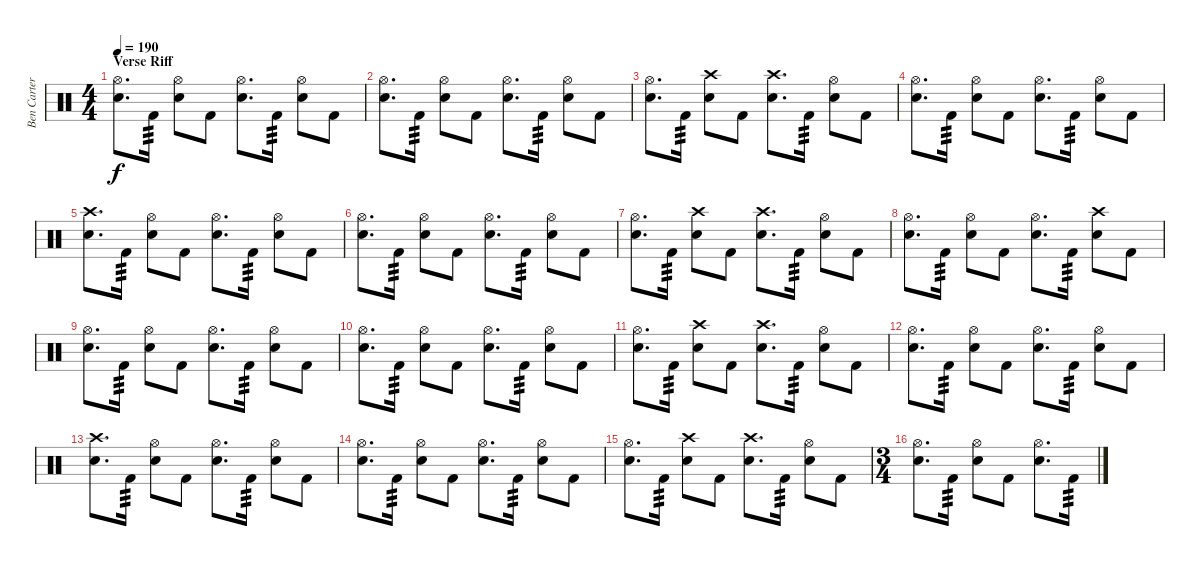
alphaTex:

\track ("Ben Carter" "Ben Carter") {instrument percussion}
\staff {score}
\articulation defaults
\ts (4 4)
\section ("" "Verse Riff")
\tempo 190
\clef neutral
\ks c
("Hi-Hat (open)" "Snare (hit) 2").8{d dy f} "Kick (hit) 2".16{tp 3} ("Hi-Hat (open)" "Snare (hit) 2").8 "Kick (hit) 2".8 ("Hi-Hat (open)" "Snare (hit) 2").8{d} "Kick (hit) 2".16{tp 3} ("Hi-Hat (open)" "Snare (hit) 2").8 "Kick (hit) 2".8 |
("Hi-Hat (open)" "Snare (hit) 2").8{d} "Kick (hit) 2".16{tp 3} ("Hi-Hat (open)" "Snare (hit) 2").8 "Kick (hit) 2".8 ("Hi-Hat (open)" "Snare (hit) 2").8{d} "Kick (hit) 2".16{tp 3} ("Hi-Hat (open)" "Snare (hit) 2").8 "Kick (hit) 2".8 |
("Hi-Hat (open)" "Snare (hit) 2").8{d} "Kick (hit) 2".16{tp 3} ("Crash high (hit)" "Snare (hit) 2").8 "Kick (hit) 2".8 ("Crash high (hit)" "Snare (hit) 2").8{d} "Kick (hit) 2".16{tp 3} ("Hi-Hat (open)" "Snare (hit) 2").8 "Kick (hit) 2".8 |
("Hi-Hat (open)" "Snare (hit) 2").8{d} "Kick (hit) 2".16{tp 3} ("Hi-Hat (open)" "Snare (hit) 2").8 "Kick (hit) 2".8 ("Hi-Hat (open)" "Snare (hit) 2").8{d} "Kick (hit) 2".16{tp 3} ("Hi-Hat (open)" "Snare (hit) 2").8 "Kick (hit) 2".8 |
("Crash high (hit)" "Snare (hit) 2").8{d} "Kick (hit) 2".16{tp 3} ("Hi-Hat (open)" "Snare (hit) 2").8 "Kick (hit) 2".8 ("Hi-Hat (open)" "Snare (hit) 2").8{d} "Kick (hit) 2".16{tp 3} ("Hi-Hat (open)" "Snare (hit) 2").8 "Kick (hit) 2".8 |
("Hi-Hat (open)" "Snare (hit) 2").8{d} "Kick (hit) 2".16{tp 3} ("Hi-Hat (open)" "Snare (hit) 2").8 "Kick (hit) 2".8 ("Hi-Hat (open)" "Snare (hit) 2").8{d} "Kick (hit) 2".16{tp 3} ("Hi-Hat (open)" "Snare (hit) 2").8 "Kick (hit) 2".8 |
("Hi-Hat (open)" "Snare (hit) 2").8{d} "Kick (hit) 2".16{tp 3} ("Crash high (hit)" "Snare (hit) 2").8 "Kick (hit) 2".8 ("Crash high (hit)" "Snare (hit) 2").8{d} "Kick (hit) 2".16{tp 3} ("Hi-Hat (open)" "Snare (hit) 2").8 "Kick (hit) 2".8 |
("Hi-Hat (open)" "Snare (hit) 2").8{d} "Kick (hit) 2".16{tp 3} ("Hi-Hat (open)" "Snare (hit) 2").8 "Kick (hit) 2".8 ("Hi-Hat (open)" "Snare (hit) 2").8{d} "Kick (hit) 2".16{tp 3} ("Crash high (hit)" "Snare (hit) 2").8 "Kick (hit) 2".8 |
("Hi-Hat (open)" "Snare (hit) 2").8{d} "Kick (hit) 2".16{tp 3} ("Hi-Hat (open)" "Snare (hit) 2").8 "Kick (hit) 2".8 ("Hi-Hat (open)" "Snare (hit) 2").8{d} "Kick (hit) 2".16{tp 3} ("Hi-Hat (open)" "Snare (hit) 2").8 "Kick (hit) 2".8 |
("Hi-Hat (open)" "Snare (hit) 2").8{d} "Kick (hit) 2".16{tp 3} ("Hi-Hat (open)" "Snare (hit) 2").8 "Kick (hit) 2".8 ("Hi-Hat (open)" "Snare (hit) 2").8{d} "Kick (hit) 2".16{tp 3} ("Hi-Hat (open)" "Snare (hit) 2").8 "Kick (hit) 2".8 |
("Hi-Hat (open)" "Snare (hit) 2").8{d} "Kick (hit) 2".16{tp 3} ("Crash high (hit)" "Snare (hit) 2").8 "Kick (hit) 2".8 ("Crash high (hit)" "Snare (hit) 2").8{d} "Kick (hit) 2".16{tp 3} ("Hi-Hat (open)" "Snare (hit) 2").8 "Kick (hit) 2".8 |
("Hi-Hat (open)" "Snare (hit) 2").8{d} "Kick (hit) 2".16{tp 3} ("Hi-Hat (open)" "Snare (hit) 2").8 "Kick (hit) 2".8 ("Hi-Hat (open)" "Snare (hit) 2").8{d} "Kick (hit) 2".16{tp 3} ("Hi-Hat (open)" "Snare (hit) 2").8 "Kick (hit) 2".8 |
("Crash high (hit)" "Snare (hit) 2").8{d} "Kick (hit) 2".16{tp 3} ("Hi-Hat (open)" "Snare (hit) 2").8 "Kick (hit) 2".8 ("Hi-Hat (open)" "Snare (hit) 2").8{d} "Kick (hit) 2".16{tp 3} ("Hi-Hat (open)" "Snare (hit) 2").8 "Kick (hit) 2".8 |
("Hi-Hat (open)" "Snare (hit) 2").8{d} "Kick (hit) 2".16{tp 3} ("Hi-Hat (open)" "Snare (hit) 2").8 "Kick (hit) 2".8 ("Hi-Hat (open)" "Snare (hit) 2").8{d} "Kick (hit) 2".16{tp 3} ("Hi-Hat (open)" "Snare (hit) 2").8 "Kick (hit) 2".8 |
("Hi-Hat (open)" "Snare (hit) 2").8{d} "Kick (hit) 2".16{tp 3} ("Crash high (hit)" "Snare (hit) 2").8 "Kick (hit) 2".8 ("Crash high (hit)" "Snare (hit) 2").8{d} "Kick (hit) 2".16{tp 3} ("Hi-Hat (open)" "Snare (hit) 2").8 "Kick (hit) 2".8 |
\ts (3 4)
("Hi-Hat (open)" "Snare (hit) 2").8{d} "Kick (hit) 2".16{tp 3} ("Hi-Hat (open)" "Snare (hit) 2").8 "Kick (hit) 2".8 ("Hi-Hat (open)" "Snare (hit) 2").8{d} "Kick (hit) 2".16{tp 3}
